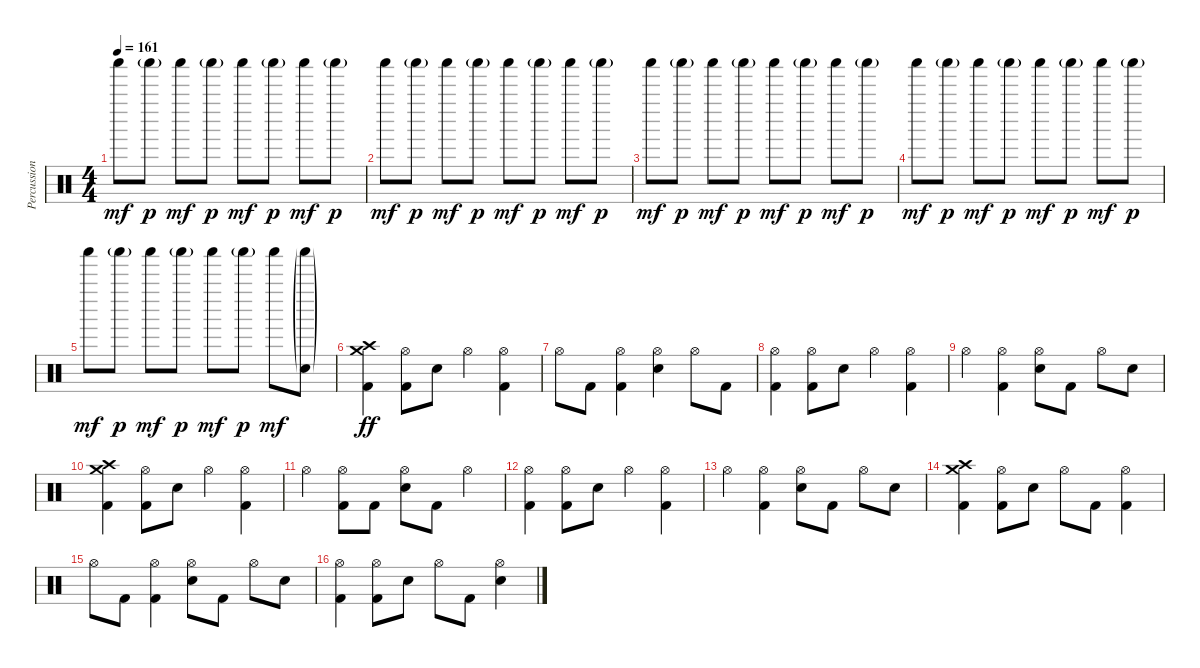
\track ("Percussion" "Percussion") {instrument percussion}
\staff {score}
\articulation defaults
\ts (4 4)
\tempo 161
\clef neutral
\ks c "Shaker (hit)".8{dy mf} "Shaker (hit)"{g}.8{dy p} "Shaker (hit)".8{dy mf} "Shaker (hit)"{g}.8{dy p} "Shaker (hit)".8{dy mf} "Shaker (hit)"{g}.8{dy p} "Shaker (hit)".8{dy mf} "Shaker (hit)"{g}.8{dy p}
|
"Shaker (hit)".8{dy mf} "Shaker (hit)"{g}.8{dy p} "Shaker (hit)".8{dy mf} "Shaker (hit)"{g}.8{dy p} "Shaker (hit)".8{dy mf} "Shaker (hit)"{g}.8{dy p} "Shaker (hit)".8{dy mf} "Shaker (hit)"{g}.8{dy p} |
"Shaker (hit)".8{dy mf} "Shaker (hit)"{g}.8{dy p} "Shaker (hit)".8{dy mf} "Shaker (hit)"{g}.8{dy p} "Shaker (hit)".8{dy mf} "Shaker (hit)"{g}.8{dy p} "Shaker (hit)".8{dy mf} "Shaker (hit)"{g}.8{dy p} |
"Shaker (hit)".8{dy mf} "Shaker (hit)"{g}.8{dy p} "Shaker (hit)".8{dy mf} "Shaker (hit)"{g}.8{dy p} "Shaker (hit)".8{dy mf} "Shaker (hit)"{g}.8{dy p} "Shaker (hit)".8{dy mf} "Shaker (hit)"{g}.8{dy p} |
"Shaker (hit)".8{dy mf} "Shaker (hit)"{g}.8{dy p} "Shaker (hit)".8{dy mf} "Shaker (hit)"{g}.8{dy p} "Shaker (hit)".8{dy mf} "Shaker (hit)"{g}.8{dy p} "Shaker (hit)".8{dy mf} ("Shaker (hit)"{g} "Electric Snare (hit)"{g}).8 |
("Crash high (hit)" "Crash medium (hit)" "Kick (hit) 2").4{dy ff} ("Hi-Hat (open)" "Kick (hit) 2").8 "Electric Snare (hit)".8 "Hi-Hat (open)".4 ("Hi-Hat (open)" "Kick (hit) 2").4 |
"Hi-Hat (open)".8 "Kick (hit) 2".8 ("Hi-Hat (open)" "Kick (hit) 2").4 ("Hi-Hat (open)" "Electric Snare (hit)").4 "Hi-Hat (open)".8 "Kick (hit) 2".8 |
("Hi-Hat (open)" "Kick (hit) 2").4 ("Hi-Hat (open)" "Kick (hit) 2").8 "Electric Snare (hit)".8 "Hi-Hat (open)".4 ("Hi-Hat (open)" "Kick (hit) 2").4 |
"Hi-Hat (open)".4 ("Hi-Hat (open)" "Kick (hit) 2").4 ("Hi-Hat (open)" "Electric Snare (hit)").8 "Kick (hit) 2".8 "Hi-Hat (open)".8 "Electric Snare (hit)".8 |
("Crash high (hit)" "Crash medium (hit)" "Kick (hit) 2").4 ("Hi-Hat (open)" "Kick (hit) 2").8 "Electric Snare (hit)".8 "Hi-Hat (open)".4 ("Hi-Hat (open)" "Kick (hit) 2").4 |
"Hi-Hat (open)".4 ("Hi-Hat (open)" "Kick (hit) 2").8 "Kick (hit) 2".8 ("Hi-Hat (open)" "Electric Snare (hit)").8 "Kick (hit) 2".8 "Hi-Hat (open)".4 |
("Hi-Hat (open)" "Kick (hit) 2").4 ("Hi-Hat (open)" "Kick (hit) 2").8 "Electric Snare (hit)".8 "Hi-Hat (open)".4 ("Hi-Hat (open)" "Kick (hit) 2").4 |
"Hi-Hat (open)".4 ("Hi-Hat (open)" "Kick (hit) 2").4 ("Hi-Hat (open)" "Electric Snare (hit)").8 "Kick (hit) 2".8 "Hi-Hat (open)".8 "Electric Snare (hit)".8 |
("Crash high (hit)" "Crash medium (hit)" "Kick (hit) 2").4 ("Hi-Hat (open)" "Kick (hit) 2").8 "Electric Snare (hit)".8 "Hi-Hat (open)".8 "Kick (hit) 2".8 ("Hi-Hat (open)" "Kick (hit) 2").4 |
"Hi-Hat (open)".8 "Kick (hit) 2".8 ("Hi-Hat (open)" "Kick (hit) 2").4 ("Hi-Hat (open)" "Electric Snare (hit)").8 "Kick (hit) 2".8 "Hi-Hat (open)".8 "Electric Snare (hit)".8 |
("Hi-Hat (open)" "Kick (hit) 2").4 ("Hi-Hat (open)" "Kick (hit) 2").8 "Electric Snare (hit)".8 "Hi-Hat (open)".8 "Kick (hit) 2".8 ("Hi-Hat (open)" "Electric Snare (hit)").4
